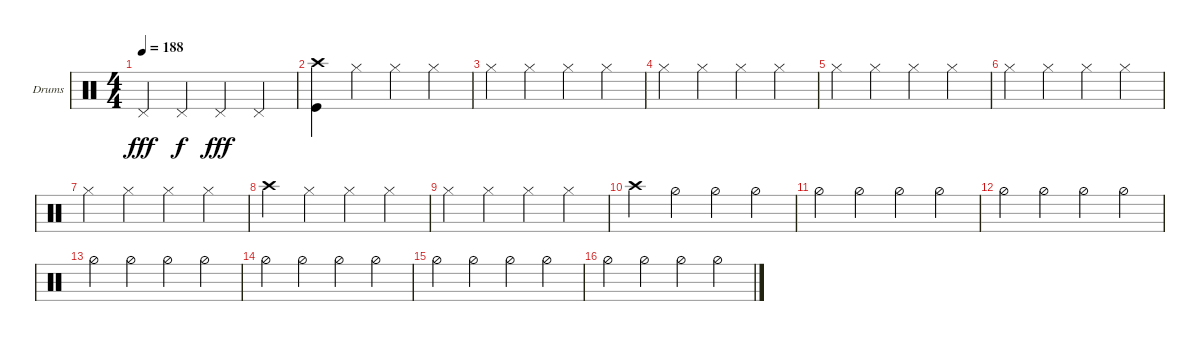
\defaultSystemsLayout 4
\bracketExtendMode groupsimilarinstruments
\firstSystemTrackNameOrientation horizontal
\otherSystemsTrackNameOrientation horizontal
\track ("Пашок" "Drums") {instrument percussion}
\staff {score}
\articulation defaults
\ts (4 4)
\tempo 188
\clef neutral
\ks c "Pedal Hi-Hat (hit)".4{dy fff} "Pedal Hi-Hat (hit)".4{dy f} "Pedal Hi-Hat (hit)".4{dy fff} "Pedal Hi-Hat (hit)".4
|
("Crash high (hit)" "Kick (hit)").4 "Hi-Hat (closed)".4 "Hi-Hat (closed)".4 "Hi-Hat (closed)".4 |
"Hi-Hat (closed)".4 "Hi-Hat (closed)".4 "Hi-Hat (closed)".4 "Hi-Hat (closed)".4 |
"Hi-Hat (closed)".4 "Hi-Hat (closed)".4 "Hi-Hat (closed)".4 "Hi-Hat (closed)".4 |
"Hi-Hat (closed)".4 "Hi-Hat (closed)".4 "Hi-Hat (closed)".4 "Hi-Hat (closed)".4 |
"Hi-Hat (closed)".4 "Hi-Hat (closed)".4 "Hi-Hat (closed)".4 "Hi-Hat (closed)".4 |
"Hi-Hat (closed)".4 "Hi-Hat (closed)".4 "Hi-Hat (closed)".4 "Hi-Hat (closed)".4 |
"Crash high (hit)".4 "Hi-Hat (closed)".4 "Hi-Hat (closed)".4 "Hi-Hat (closed)".4 |
"Hi-Hat (closed)".4 "Hi-Hat (closed)".4 "Hi-Hat (closed)".4 "Hi-Hat (closed)".4 |
"Crash high (hit)".4 "Hi-Hat (half)".4 "Hi-Hat (half)".4 "Hi-Hat (half)".4 |
"Hi-Hat (half)".4 "Hi-Hat (half)".4 "Hi-Hat (half)".4 "Hi-Hat (half)".4 |
"Hi-Hat (half)".4 "Hi-Hat (half)".4 "Hi-Hat (half)".4 "Hi-Hat (half)".4 |
"Hi-Hat (half)".4 "Hi-Hat (half)".4 "Hi-Hat (half)".4 "Hi-Hat (half)".4 |
"Hi-Hat (half)".4 "Hi-Hat (half)".4 "Hi-Hat (half)".4 "Hi-Hat (half)".4 |
"Hi-Hat (half)".4 "Hi-Hat (half)".4 "Hi-Hat (half)".4 "Hi-Hat (half)".4 |
"Hi-Hat (half)".4 "Hi-Hat (half)".4 "Hi-Hat (half)".4 "Hi-Hat (half)".4
